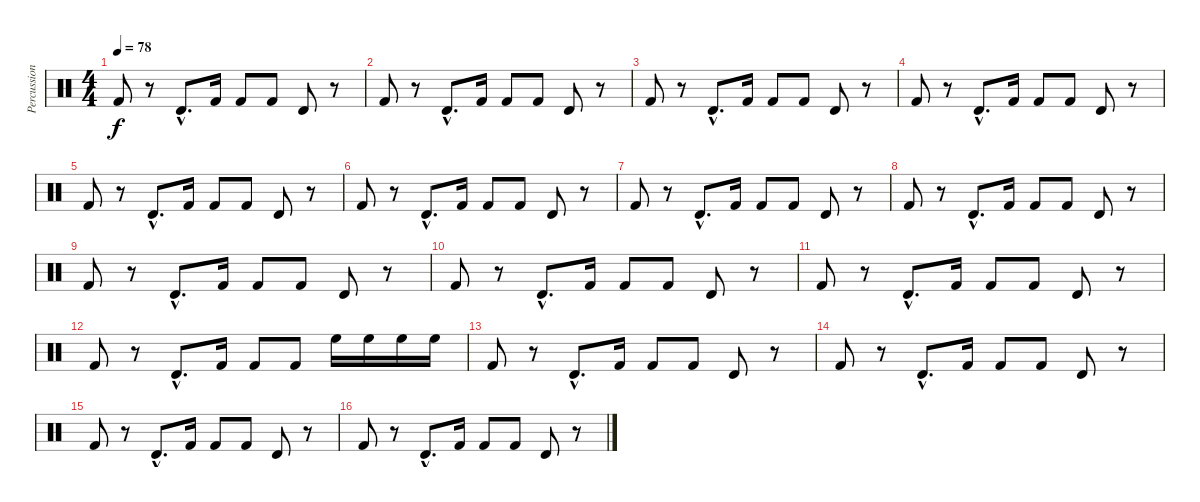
\track ("Percussion" "Percussion") {instrument percussion}
\staff {score}
\articulation defaults
\ts (4 4)
\tempo 78
\clef neutral
\ks c "Kick (hit) 2".8{dy f}
r.8 "Timbale high (hit)"{hac}.8{d} "Kick (hit) 2".16 "Kick (hit) 2".8 "Kick (hit) 2".8 "Timbale high (hit)".8 r.8 |
"Kick (hit) 2".8 r.8 "Timbale high (hit)"{hac}.8{d} "Kick (hit) 2".16 "Kick (hit) 2".8 "Kick (hit) 2".8 "Timbale high (hit)".8 r.8 |
"Kick (hit) 2".8 r.8 "Timbale high (hit)"{hac}.8{d} "Kick (hit) 2".16 "Kick (hit) 2".8 "Kick (hit) 2".8 "Timbale high (hit)".8 r.8 |
"Kick (hit) 2".8 r.8 "Timbale high (hit)"{hac}.8{d} "Kick (hit) 2".16 "Kick (hit) 2".8 "Kick (hit) 2".8 "Timbale high (hit)".8 r.8 |
"Kick (hit) 2".8 r.8 "Timbale high (hit)"{hac}.8{d} "Kick (hit) 2".16 "Kick (hit) 2".8 "Kick (hit) 2".8 "Timbale high (hit)".8 r.8 |
"Kick (hit) 2".8 r.8 "Timbale high (hit)"{hac}.8{d} "Kick (hit) 2".16 "Kick (hit) 2".8 "Kick (hit) 2".8 "Timbale high (hit)".8 r.8 |
"Kick (hit) 2".8 r.8 "Timbale high (hit)"{hac}.8{d} "Kick (hit) 2".16 "Kick (hit) 2".8 "Kick (hit) 2".8 "Timbale high (hit)".8 r.8 |
"Kick (hit) 2".8 r.8 "Timbale high (hit)"{hac}.8{d} "Kick (hit) 2".16 "Kick (hit) 2".8 "Kick (hit) 2".8 "Timbale high (hit)".8 r.8 |
"Kick (hit) 2".8 r.8 "Timbale high (hit)"{hac}.8{d} "Kick (hit) 2".16 "Kick (hit) 2".8 "Kick (hit) 2".8 "Timbale high (hit)".8 r.8 |
"Kick (hit) 2".8 r.8 "Timbale high (hit)"{hac}.8{d} "Kick (hit) 2".16 "Kick (hit) 2".8 "Kick (hit) 2".8 "Timbale high (hit)".8 r.8 |
"Kick (hit) 2".8 r.8 "Timbale high (hit)"{hac}.8{d} "Kick (hit) 2".16 "Kick (hit) 2".8 "Kick (hit) 2".8 "Timbale high (hit)".8 r.8 |
"Kick (hit) 2".8 r.8 "Timbale high (hit)"{hac}.8{d} "Kick (hit) 2".16 "Kick (hit) 2".8 "Kick (hit) 2".8 "High Floor Tom (hit)".16 "High Floor Tom (hit)".16 "High Floor Tom (hit)".16 "High Floor Tom (hit)".16 |
"Kick (hit) 2".8 r.8 "Timbale high (hit)"{hac}.8{d} "Kick (hit) 2".16 "Kick (hit) 2".8 "Kick (hit) 2".8 "Timbale high (hit)".8 r.8 |
"Kick (hit) 2".8 r.8 "Timbale high (hit)"{hac}.8{d} "Kick (hit) 2".16 "Kick (hit) 2".8 "Kick (hit) 2".8 "Timbale high (hit)".8 r.8 |
"Kick (hit) 2".8 r.8 "Timbale high (hit)"{hac}.8{d} "Kick (hit) 2".16 "Kick (hit) 2".8 "Kick (hit) 2".8 "Timbale high (hit)".8 r.8 |
"Kick (hit) 2".8 r.8 "Timbale high (hit)"{hac}.8{d} "Kick (hit) 2".16 "Kick (hit) 2".8 "Kick (hit) 2".8 "Timbale high (hit)".8 r.8
